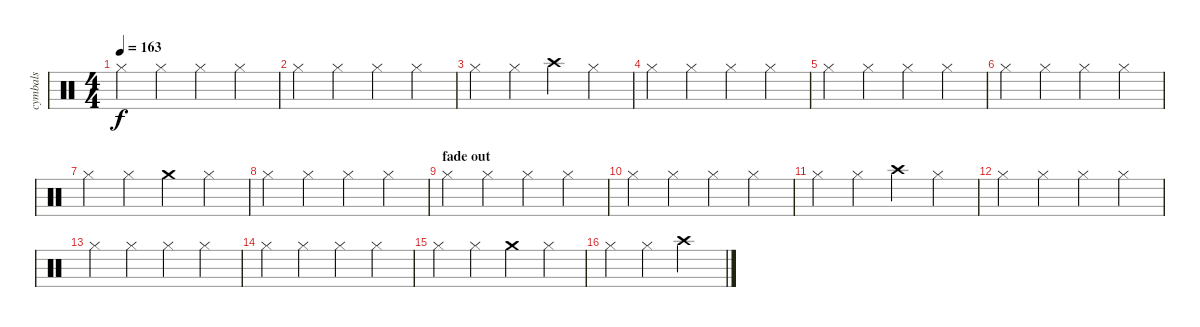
\track ("cymbals" "cymbals") {instrument percussion}
\staff {score}
\articulation defaults
\ts (4 4)
\tempo 163
\clef neutral
\ks c "Hi-Hat (closed)".4{dy f} "Hi-Hat (closed)".4 "Hi-Hat (closed)".4 "Hi-Hat (closed)".4
|
"Hi-Hat (closed)".4 "Hi-Hat (closed)".4 "Hi-Hat (closed)".4 "Hi-Hat (closed)".4 |
"Hi-Hat (closed)".4 "Hi-Hat (closed)".4 "Crash high (hit)".4 "Hi-Hat (closed)".4 |
"Hi-Hat (closed)".4 "Hi-Hat (closed)".4 "Hi-Hat (closed)".4 "Hi-Hat (closed)".4 |
"Hi-Hat (closed)".4 "Hi-Hat (closed)".4 "Hi-Hat (closed)".4 "Hi-Hat (closed)".4 |
"Hi-Hat (closed)".4 "Hi-Hat (closed)".4 "Hi-Hat (closed)".4 "Hi-Hat (closed)".4 |
"Hi-Hat (closed)".4 "Hi-Hat (closed)".4 "Crash medium (hit)".4 "Hi-Hat (closed)".4 |
"Hi-Hat (closed)".4 "Hi-Hat (closed)".4 "Hi-Hat (closed)".4 "Hi-Hat (closed)".4 |
\section ("" "fade out")
"Hi-Hat (closed)".4 "Hi-Hat (closed)".4 "Hi-Hat (closed)".4 "Hi-Hat (closed)".4 |
"Hi-Hat (closed)".4 "Hi-Hat (closed)".4 "Hi-Hat (closed)".4 "Hi-Hat (closed)".4 |
"Hi-Hat (closed)".4 "Hi-Hat (closed)".4 "Crash high (hit)".4 "Hi-Hat (closed)".4 |
"Hi-Hat (closed)".4 "Hi-Hat (closed)".4 "Hi-Hat (closed)".4 "Hi-Hat (closed)".4 |
"Hi-Hat (closed)".4 "Hi-Hat (closed)".4 "Hi-Hat (closed)".4 "Hi-Hat (closed)".4 |
"Hi-Hat (closed)".4 "Hi-Hat (closed)".4 "Hi-Hat (closed)".4 "Hi-Hat (closed)".4 |
"Hi-Hat (closed)".4 "Hi-Hat (closed)".4 "Crash medium (hit)".4 "Hi-Hat (closed)".4 |
"Hi-Hat (closed)".4 "Hi-Hat (closed)".4 "Crash high (hit)".2
